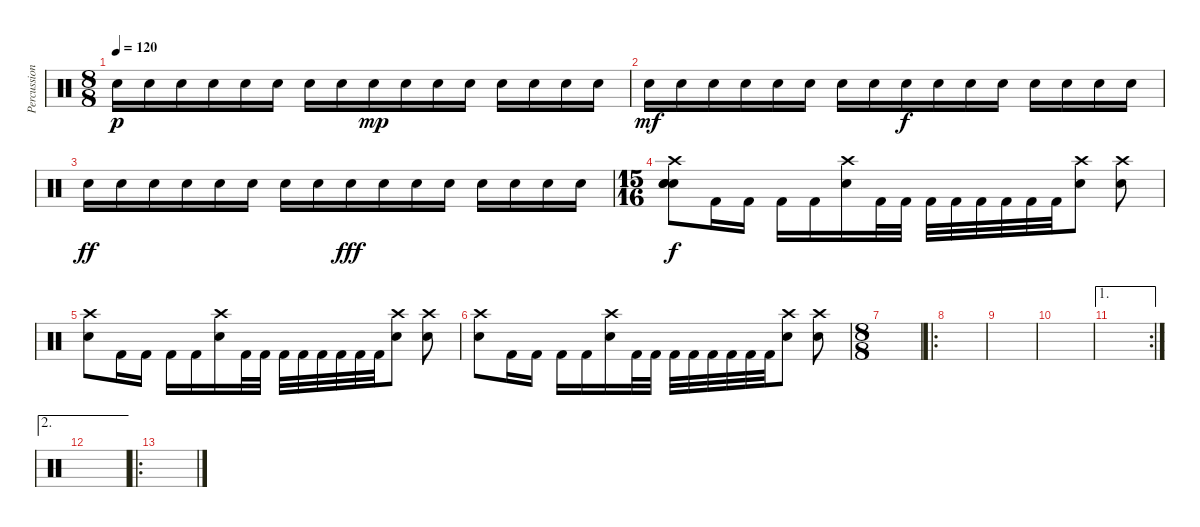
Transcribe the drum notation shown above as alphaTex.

\track ("Percussions" "Percussion") {instrument percussion}
\staff {score}
\articulation defaults
\ts (8 8)
\tempo 120
\clef neutral
\ks c "Electric Snare (hit)".16{dy p} "Electric Snare (hit)".16 "Electric Snare (hit)".16 "Electric Snare (hit)".16 "Electric Snare (hit)".16 "Electric Snare (hit)".16 "Electric Snare (hit)".16 "Electric Snare (hit)".16 "Electric Snare (hit)".16{dy mp} "Electric Snare (hit)".16 "Electric Snare (hit)".16 "Electric Snare (hit)".16 "Electric Snare (hit)".16 "Electric Snare (hit)".16 "Electric Snare (hit)".16 "Electric Snare (hit)".16
|
"Electric Snare (hit)".16{dy mf} "Electric Snare (hit)".16 "Electric Snare (hit)".16 "Electric Snare (hit)".16 "Electric Snare (hit)".16 "Electric Snare (hit)".16 "Electric Snare (hit)".16 "Electric Snare (hit)".16 "Electric Snare (hit)".16{dy f} "Electric Snare (hit)".16 "Electric Snare (hit)".16 "Electric Snare (hit)".16 "Electric Snare (hit)".16 "Electric Snare (hit)".16 "Electric Snare (hit)".16 "Electric Snare (hit)".16 |
"Electric Snare (hit)".16{dy ff} "Electric Snare (hit)".16 "Electric Snare (hit)".16 "Electric Snare (hit)".16 "Electric Snare (hit)".16 "Electric Snare (hit)".16 "Electric Snare (hit)".16 "Electric Snare (hit)".16 "Electric Snare (hit)".16{dy fff} "Electric Snare (hit)".16 "Electric Snare (hit)".16 "Electric Snare (hit)".16 "Electric Snare (hit)".16 "Electric Snare (hit)".16 "Electric Snare (hit)".16 "Electric Snare (hit)".16 |
\ts (15 16)
("Electric Snare (hit)" "Electric Snare (hit)" "Electric Snare (hit)" "Crash high (hit)").8{dy f} "Kick (hit) 2".16 "Kick (hit) 2".16 "Kick (hit) 2".16 "Kick (hit) 2".16 ("Electric Snare (hit)" "Crash high (hit)").16 "Kick (hit) 2".32 "Kick (hit) 2".32 "Kick (hit) 2".32 "Kick (hit) 2".32 "Kick (hit) 2".32 "Kick (hit) 2".32 "Kick (hit) 2".32 "Kick (hit) 2".32 ("Electric Snare (hit)" "Crash high (hit)").8 ("Electric Snare (hit)" "Crash high (hit)").8 |
("Electric Snare (hit)" "Crash high (hit)").8 "Kick (hit) 2".16 "Kick (hit) 2".16 "Kick (hit) 2".16 "Kick (hit) 2".16 ("Electric Snare (hit)" "Crash high (hit)").16 "Kick (hit) 2".32 "Kick (hit) 2".32 "Kick (hit) 2".32 "Kick (hit) 2".32 "Kick (hit) 2".32 "Kick (hit) 2".32 "Kick (hit) 2".32 "Kick (hit) 2".32 ("Electric Snare (hit)" "Crash high (hit)").8 ("Electric Snare (hit)" "Crash high (hit)").8 |
("Electric Snare (hit)" "Crash high (hit)").8 "Kick (hit) 2".16 "Kick (hit) 2".16 "Kick (hit) 2".16 "Kick (hit) 2".16 ("Electric Snare (hit)" "Crash high (hit)").16 "Kick (hit) 2".32 "Kick (hit) 2".32 "Kick (hit) 2".32 "Kick (hit) 2".32 "Kick (hit) 2".32 "Kick (hit) 2".32 "Kick (hit) 2".32 "Kick (hit) 2".32 ("Electric Snare (hit)" "Crash high (hit)").8 ("Electric Snare (hit)" "Crash high (hit)").8 |
\ts (8 8)
|
\ro
|
|
|
\ae 1
\rc 2
|
\ae 2
|
\ro
